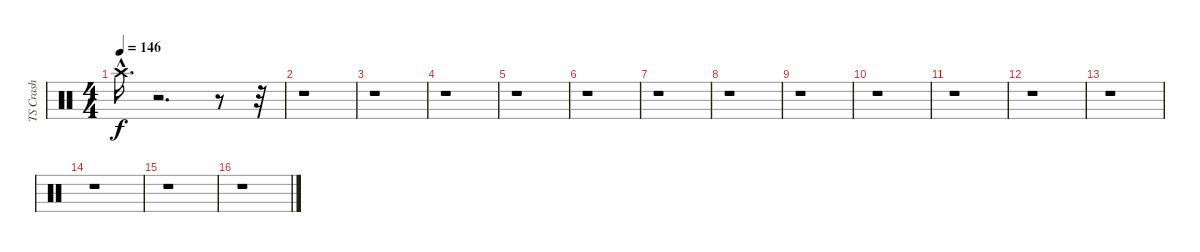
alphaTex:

\track ("TS Crash" "TS Crash") {instrument percussion}
\staff {score}
\articulation defaults
\ts (4 4)
\tempo 146
\clef neutral
\ks c "Crash high (hit)"{hac}.16{d dy f}
r.2{d} r.8 r.32 |
r.1 |
r.1 |
r.1 |
r.1 |
r.1 |
r.1 |
r.1 |
r.1 |
r.1 |
r.1 |
r.1 |
r.1 |
r.1 |
r.1 |
r.1
